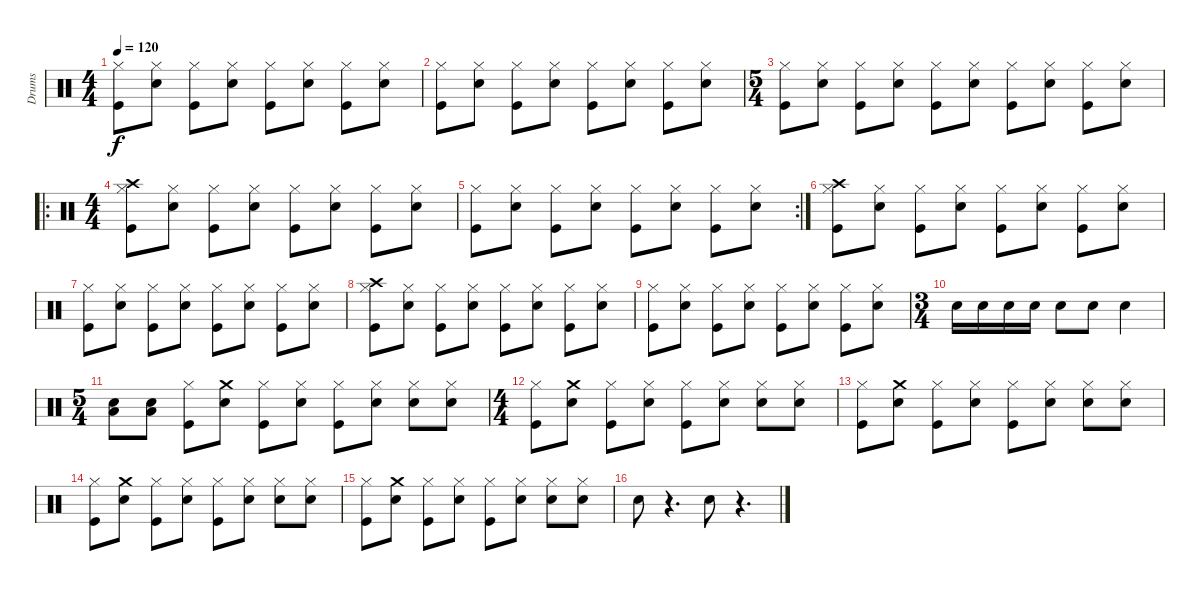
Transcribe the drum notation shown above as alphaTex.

\track ("Drums" "Drums") {instrument percussion}
\staff {score}
\articulation defaults
\ts (4 4)
\tempo 120
\clef neutral
\ks c
("Hi-Hat (closed)" "Kick (hit)").8{dy f} ("Hi-Hat (closed)" "Electric Snare (hit)").8 ("Hi-Hat (closed)" "Kick (hit)").8 ("Hi-Hat (closed)" "Electric Snare (hit)").8 ("Hi-Hat (closed)" "Kick (hit)").8 ("Hi-Hat (closed)" "Electric Snare (hit)").8 ("Hi-Hat (closed)" "Kick (hit)").8 ("Hi-Hat (closed)" "Electric Snare (hit)").8 |
("Hi-Hat (closed)" "Kick (hit)").8 ("Hi-Hat (closed)" "Electric Snare (hit)").8 ("Hi-Hat (closed)" "Kick (hit)").8 ("Hi-Hat (closed)" "Electric Snare (hit)").8 ("Hi-Hat (closed)" "Kick (hit)").8 ("Hi-Hat (closed)" "Electric Snare (hit)").8 ("Hi-Hat (closed)" "Kick (hit)").8 ("Hi-Hat (closed)" "Electric Snare (hit)").8 |
\ts (5 4)
("Hi-Hat (closed)" "Kick (hit)").8 ("Hi-Hat (closed)" "Electric Snare (hit)").8 ("Hi-Hat (closed)" "Kick (hit)").8 ("Hi-Hat (closed)" "Electric Snare (hit)").8 ("Hi-Hat (closed)" "Kick (hit)").8 ("Hi-Hat (closed)" "Electric Snare (hit)").8 ("Hi-Hat (closed)" "Kick (hit)").8 ("Hi-Hat (closed)" "Electric Snare (hit)").8 ("Hi-Hat (closed)" "Kick (hit)").8 ("Hi-Hat (closed)" "Electric Snare (hit)").8 |
\ro
\ts (4 4)
("Crash high (hit)" "Hi-Hat (closed)" "Kick (hit)").8 ("Hi-Hat (closed)" "Electric Snare (hit)").8 ("Hi-Hat (closed)" "Kick (hit)").8 ("Hi-Hat (closed)" "Electric Snare (hit)").8 ("Hi-Hat (closed)" "Kick (hit)").8 ("Hi-Hat (closed)" "Electric Snare (hit)").8 ("Hi-Hat (closed)" "Kick (hit)").8 ("Hi-Hat (closed)" "Electric Snare (hit)").8 |
\rc 2
("Hi-Hat (closed)" "Kick (hit)").8 ("Hi-Hat (closed)" "Electric Snare (hit)").8 ("Hi-Hat (closed)" "Kick (hit)").8 ("Hi-Hat (closed)" "Electric Snare (hit)").8 ("Hi-Hat (closed)" "Kick (hit)").8 ("Hi-Hat (closed)" "Electric Snare (hit)").8 ("Hi-Hat (closed)" "Kick (hit)").8 ("Hi-Hat (closed)" "Electric Snare (hit)").8 |
("Crash high (hit)" "Hi-Hat (closed)" "Kick (hit)").8 ("Hi-Hat (closed)" "Electric Snare (hit)").8 ("Hi-Hat (closed)" "Kick (hit)").8 ("Hi-Hat (closed)" "Electric Snare (hit)").8 ("Hi-Hat (closed)" "Kick (hit)").8 ("Hi-Hat (closed)" "Electric Snare (hit)").8 ("Hi-Hat (closed)" "Kick (hit)").8 ("Hi-Hat (closed)" "Electric Snare (hit)").8 |
("Hi-Hat (closed)" "Kick (hit)").8 ("Hi-Hat (closed)" "Electric Snare (hit)").8 ("Hi-Hat (closed)" "Kick (hit)").8 ("Hi-Hat (closed)" "Electric Snare (hit)").8 ("Hi-Hat (closed)" "Kick (hit)").8 ("Hi-Hat (closed)" "Electric Snare (hit)").8 ("Hi-Hat (closed)" "Kick (hit)").8 ("Hi-Hat (closed)" "Electric Snare (hit)").8 |
("Crash high (hit)" "Hi-Hat (closed)" "Kick (hit)").8 ("Hi-Hat (closed)" "Electric Snare (hit)").8 ("Hi-Hat (closed)" "Kick (hit)").8 ("Hi-Hat (closed)" "Electric Snare (hit)").8 ("Hi-Hat (closed)" "Kick (hit)").8 ("Hi-Hat (closed)" "Electric Snare (hit)").8 ("Hi-Hat (closed)" "Kick (hit)").8 ("Hi-Hat (closed)" "Electric Snare (hit)").8 |
("Hi-Hat (closed)" "Kick (hit)").8 ("Hi-Hat (closed)" "Electric Snare (hit)").8 ("Hi-Hat (closed)" "Kick (hit)").8 ("Hi-Hat (closed)" "Electric Snare (hit)").8 ("Hi-Hat (closed)" "Kick (hit)").8 ("Hi-Hat (closed)" "Electric Snare (hit)").8 ("Hi-Hat (closed)" "Kick (hit)").8 ("Hi-Hat (closed)" "Electric Snare (hit)").8 |
\ts (3 4)
"Electric Snare (hit)".16 "Electric Snare (hit)".16 "Electric Snare (hit)".16 "Electric Snare (hit)".16 "Electric Snare (hit)".8 "Electric Snare (hit)".8 "Electric Snare (hit)".4 |
\ts (5 4)
("Low Floor Tom (hit)" "Electric Snare (hit)").8 ("Low Floor Tom (hit)" "Electric Snare (hit)").8 ("Hi-Hat (closed)" "Kick (hit)").8 ("Crash medium (hit)" "Electric Snare (hit)").8 ("Hi-Hat (closed)" "Kick (hit)").8 ("Hi-Hat (closed)" "Electric Snare (hit)").8 ("Hi-Hat (closed)" "Kick (hit)").8 ("Hi-Hat (closed)" "Electric Snare (hit)").8 ("Hi-Hat (closed)" "Electric Snare (hit)").8 ("Hi-Hat (closed)" "Electric Snare (hit)").8 |
\ts (4 4)
("Hi-Hat (closed)" "Kick (hit)").8 ("Crash medium (hit)" "Electric Snare (hit)").8 ("Hi-Hat (closed)" "Kick (hit)").8 ("Hi-Hat (closed)" "Electric Snare (hit)").8 ("Hi-Hat (closed)" "Kick (hit)").8 ("Hi-Hat (closed)" "Electric Snare (hit)").8 ("Hi-Hat (closed)" "Electric Snare (hit)").8 ("Hi-Hat (closed)" "Electric Snare (hit)").8 |
("Hi-Hat (closed)" "Kick (hit)").8 ("Crash medium (hit)" "Electric Snare (hit)").8 ("Hi-Hat (closed)" "Kick (hit)").8 ("Hi-Hat (closed)" "Electric Snare (hit)").8 ("Hi-Hat (closed)" "Kick (hit)").8 ("Hi-Hat (closed)" "Electric Snare (hit)").8 ("Hi-Hat (closed)" "Electric Snare (hit)").8 ("Hi-Hat (closed)" "Electric Snare (hit)").8 |
("Hi-Hat (closed)" "Kick (hit)").8 ("Crash medium (hit)" "Electric Snare (hit)").8 ("Hi-Hat (closed)" "Kick (hit)").8 ("Hi-Hat (closed)" "Electric Snare (hit)").8 ("Hi-Hat (closed)" "Kick (hit)").8 ("Hi-Hat (closed)" "Electric Snare (hit)").8 ("Hi-Hat (closed)" "Electric Snare (hit)").8 ("Hi-Hat (closed)" "Electric Snare (hit)").8 |
("Hi-Hat (closed)" "Kick (hit)").8 ("Crash medium (hit)" "Electric Snare (hit)").8 ("Hi-Hat (closed)" "Kick (hit)").8 ("Hi-Hat (closed)" "Electric Snare (hit)").8 ("Hi-Hat (closed)" "Kick (hit)").8 ("Hi-Hat (closed)" "Electric Snare (hit)").8 ("Hi-Hat (closed)" "Electric Snare (hit)").8 ("Hi-Hat (closed)" "Electric Snare (hit)").8 |
"Electric Snare (hit)".8 r.4{d} "Electric Snare (hit)".8 r.4{d}
